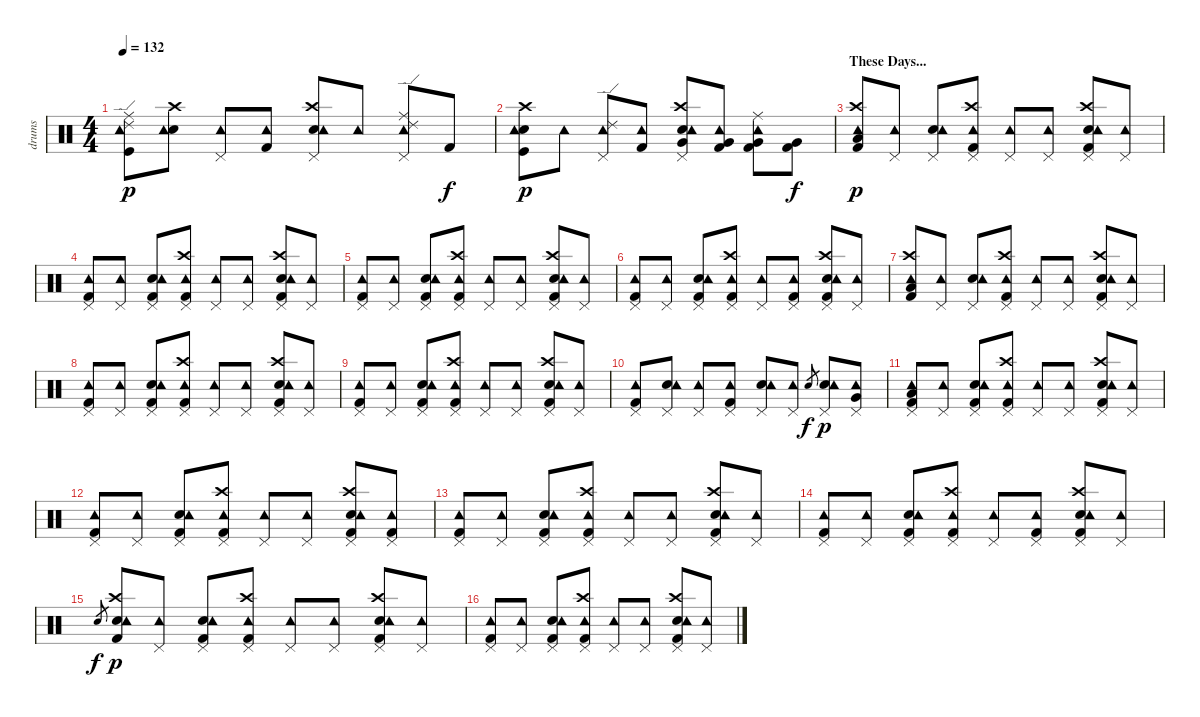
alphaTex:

\track ("drums" "drums") {instrument percussion}
\staff {score}
\articulation defaults
\ts (4 4)
\tempo 132
\clef neutral
\ks c
("Ride (edge) 2" "Kick (hit)" "Ride (middle)" "Tambourine (hit)").8{dy p} ("Electric Snare (hit)" "Crash high (hit)" "Tambourine (hit)").8 ("Pedal Hi-Hat (hit)" "Tambourine (hit)").8 ("Kick (hit) 2" "Tambourine (hit)").8 ("Electric Snare (hit)" "Pedal Hi-Hat (hit)" "Crash high (hit)" "Tambourine (hit)").8 "Tambourine (hit)".8 ("Ride (edge) 2" "Pedal Hi-Hat (hit)" "Ride (middle)" "Tambourine (hit)").8 "Kick (hit) 2".8{dy f} |
("Electric Snare (hit)" "Kick (hit)" "Crash high (hit)" "Tambourine (hit)").8{dy p} "Tambourine (hit)".8 ("Ride (edge) 2" "Pedal Hi-Hat (hit)" "Tambourine (hit)").8 ("Kick (hit) 2" "Tambourine (hit)").8 ("Electric Snare (hit)" "Very Low Tom (hit)" "Pedal Hi-Hat (hit)" "Crash high (hit)" "Tambourine (hit)").8 ("Very Low Tom (hit)" "Kick (hit) 2" "Tambourine (hit)").8 ("Very Low Tom (hit)" "Kick (hit) 2" "Ride (middle)" "Tambourine (hit)").8 ("Very Low Tom (hit)" "Kick (hit) 2").8{dy f} |
\section ("" "These Days...")
("Low Floor Tom (hit)" "Kick (hit) 2" "Crash high (hit)" "Tambourine (hit)").8{dy p} ("Pedal Hi-Hat (hit)" "Tambourine (hit)").8 ("Electric Snare (hit)" "Pedal Hi-Hat (hit)" "Tambourine (hit)").8 ("Crash high (hit)" "Kick (hit) 2" "Pedal Hi-Hat (hit)" "Tambourine (hit)").8 ("Pedal Hi-Hat (hit)" "Tambourine (hit)").8 ("Pedal Hi-Hat (hit)" "Tambourine (hit)").8 ("Electric Snare (hit)" "Crash high (hit)" "Kick (hit) 2" "Pedal Hi-Hat (hit)" "Tambourine (hit)").8 ("Pedal Hi-Hat (hit)" "Tambourine (hit)").8 |
("Kick (hit) 2" "Pedal Hi-Hat (hit)" "Tambourine (hit)").8 ("Pedal Hi-Hat (hit)" "Tambourine (hit)").8 ("Electric Snare (hit)" "Kick (hit) 2" "Pedal Hi-Hat (hit)" "Tambourine (hit)").8 ("Crash high (hit)" "Kick (hit) 2" "Pedal Hi-Hat (hit)" "Tambourine (hit)").8 ("Pedal Hi-Hat (hit)" "Tambourine (hit)").8 ("Pedal Hi-Hat (hit)" "Tambourine (hit)").8 ("Electric Snare (hit)" "Crash high (hit)" "Kick (hit) 2" "Pedal Hi-Hat (hit)" "Tambourine (hit)").8 ("Pedal Hi-Hat (hit)" "Tambourine (hit)").8 |
("Kick (hit) 2" "Pedal Hi-Hat (hit)" "Tambourine (hit)").8 ("Pedal Hi-Hat (hit)" "Tambourine (hit)").8 ("Electric Snare (hit)" "Kick (hit) 2" "Pedal Hi-Hat (hit)" "Tambourine (hit)").8 ("Crash high (hit)" "Kick (hit) 2" "Pedal Hi-Hat (hit)" "Tambourine (hit)").8 ("Pedal Hi-Hat (hit)" "Tambourine (hit)").8 ("Pedal Hi-Hat (hit)" "Tambourine (hit)").8 ("Electric Snare (hit)" "Crash high (hit)" "Kick (hit) 2" "Pedal Hi-Hat (hit)" "Tambourine (hit)").8 ("Pedal Hi-Hat (hit)" "Tambourine (hit)").8 |
("Kick (hit) 2" "Pedal Hi-Hat (hit)" "Tambourine (hit)").8 ("Pedal Hi-Hat (hit)" "Tambourine (hit)").8 ("Electric Snare (hit)" "Kick (hit) 2" "Pedal Hi-Hat (hit)" "Tambourine (hit)").8 ("Crash high (hit)" "Kick (hit) 2" "Pedal Hi-Hat (hit)" "Tambourine (hit)").8 ("Pedal Hi-Hat (hit)" "Tambourine (hit)").8 ("Kick (hit) 2" "Pedal Hi-Hat (hit)" "Tambourine (hit)").8 ("Electric Snare (hit)" "Crash high (hit)" "Kick (hit) 2" "Pedal Hi-Hat (hit)" "Tambourine (hit)").8 ("Pedal Hi-Hat (hit)" "Tambourine (hit)").8 |
("Low Floor Tom (hit)" "Kick (hit) 2" "Crash high (hit)" "Tambourine (hit)").8 ("Pedal Hi-Hat (hit)" "Tambourine (hit)").8 ("Electric Snare (hit)" "Pedal Hi-Hat (hit)" "Tambourine (hit)").8 ("Crash high (hit)" "Kick (hit) 2" "Pedal Hi-Hat (hit)" "Tambourine (hit)").8 ("Pedal Hi-Hat (hit)" "Tambourine (hit)").8 ("Pedal Hi-Hat (hit)" "Tambourine (hit)").8 ("Electric Snare (hit)" "Crash high (hit)" "Kick (hit) 2" "Pedal Hi-Hat (hit)" "Tambourine (hit)").8 ("Pedal Hi-Hat (hit)" "Tambourine (hit)").8 |
("Kick (hit) 2" "Pedal Hi-Hat (hit)" "Tambourine (hit)").8 ("Pedal Hi-Hat (hit)" "Tambourine (hit)").8 ("Electric Snare (hit)" "Kick (hit) 2" "Pedal Hi-Hat (hit)" "Tambourine (hit)").8 ("Crash high (hit)" "Kick (hit) 2" "Pedal Hi-Hat (hit)" "Tambourine (hit)").8 ("Pedal Hi-Hat (hit)" "Tambourine (hit)").8 ("Pedal Hi-Hat (hit)" "Tambourine (hit)").8 ("Electric Snare (hit)" "Crash high (hit)" "Kick (hit) 2" "Pedal Hi-Hat (hit)" "Tambourine (hit)").8 ("Pedal Hi-Hat (hit)" "Tambourine (hit)").8 |
("Kick (hit) 2" "Pedal Hi-Hat (hit)" "Tambourine (hit)").8 ("Pedal Hi-Hat (hit)" "Tambourine (hit)").8 ("Electric Snare (hit)" "Kick (hit) 2" "Pedal Hi-Hat (hit)" "Tambourine (hit)").8 ("Crash high (hit)" "Kick (hit) 2" "Pedal Hi-Hat (hit)" "Tambourine (hit)").8 ("Pedal Hi-Hat (hit)" "Tambourine (hit)").8 ("Pedal Hi-Hat (hit)" "Tambourine (hit)").8 ("Electric Snare (hit)" "Crash high (hit)" "Kick (hit) 2" "Pedal Hi-Hat (hit)" "Tambourine (hit)").8 ("Pedal Hi-Hat (hit)" "Tambourine (hit)").8 |
("Kick (hit) 2" "Pedal Hi-Hat (hit)" "Tambourine (hit)").8 ("Electric Snare (hit)" "Pedal Hi-Hat (hit)" "Tambourine (hit)").8 ("Pedal Hi-Hat (hit)" "Tambourine (hit)").8 ("Kick (hit) 2" "Pedal Hi-Hat (hit)" "Tambourine (hit)").8 ("Electric Snare (hit)" "Pedal Hi-Hat (hit)" "Tambourine (hit)").8 ("Pedal Hi-Hat (hit)" "Tambourine (hit)").8 "Electric Snare (hit)".8{gr dy f} ("Electric Snare (hit)" "Pedal Hi-Hat (hit)" "Tambourine (hit)").8{dy p} ("Very Low Tom (hit)" "Pedal Hi-Hat (hit)" "Tambourine (hit)").8 |
("Low Floor Tom (hit)" "Kick (hit) 2" "Pedal Hi-Hat (hit)" "Tambourine (hit)").8 ("Pedal Hi-Hat (hit)" "Tambourine (hit)").8 ("Electric Snare (hit)" "Kick (hit) 2" "Pedal Hi-Hat (hit)" "Tambourine (hit)").8 ("Crash high (hit)" "Kick (hit) 2" "Pedal Hi-Hat (hit)" "Tambourine (hit)").8 ("Pedal Hi-Hat (hit)" "Tambourine (hit)").8 ("Pedal Hi-Hat (hit)" "Tambourine (hit)").8 ("Electric Snare (hit)" "Crash high (hit)" "Kick (hit) 2" "Pedal Hi-Hat (hit)" "Tambourine (hit)").8 ("Pedal Hi-Hat (hit)" "Tambourine (hit)").8 |
("Kick (hit) 2" "Pedal Hi-Hat (hit)" "Tambourine (hit)").8 ("Pedal Hi-Hat (hit)" "Tambourine (hit)").8 ("Electric Snare (hit)" "Kick (hit) 2" "Pedal Hi-Hat (hit)" "Tambourine (hit)").8 ("Crash high (hit)" "Kick (hit) 2" "Pedal Hi-Hat (hit)" "Tambourine (hit)").8 ("Pedal Hi-Hat (hit)" "Tambourine (hit)").8 ("Pedal Hi-Hat (hit)" "Tambourine (hit)").8 ("Electric Snare (hit)" "Crash high (hit)" "Kick (hit) 2" "Pedal Hi-Hat (hit)" "Tambourine (hit)").8 ("Kick (hit) 2" "Pedal Hi-Hat (hit)" "Tambourine (hit)").8 |
("Kick (hit) 2" "Pedal Hi-Hat (hit)" "Tambourine (hit)").8 ("Pedal Hi-Hat (hit)" "Tambourine (hit)").8 ("Electric Snare (hit)" "Kick (hit) 2" "Pedal Hi-Hat (hit)" "Tambourine (hit)").8 ("Crash high (hit)" "Kick (hit) 2" "Pedal Hi-Hat (hit)" "Tambourine (hit)").8 ("Pedal Hi-Hat (hit)" "Tambourine (hit)").8 ("Pedal Hi-Hat (hit)" "Tambourine (hit)").8 ("Electric Snare (hit)" "Crash high (hit)" "Kick (hit) 2" "Pedal Hi-Hat (hit)" "Tambourine (hit)").8 ("Pedal Hi-Hat (hit)" "Tambourine (hit)").8 |
("Kick (hit) 2" "Pedal Hi-Hat (hit)" "Tambourine (hit)").8 ("Pedal Hi-Hat (hit)" "Tambourine (hit)").8 ("Electric Snare (hit)" "Kick (hit) 2" "Pedal Hi-Hat (hit)" "Tambourine (hit)").8 ("Crash high (hit)" "Kick (hit) 2" "Pedal Hi-Hat (hit)" "Tambourine (hit)").8 ("Pedal Hi-Hat (hit)" "Tambourine (hit)").8 ("Kick (hit) 2" "Pedal Hi-Hat (hit)" "Tambourine (hit)").8 ("Electric Snare (hit)" "Crash high (hit)" "Kick (hit) 2" "Pedal Hi-Hat (hit)" "Tambourine (hit)").8 ("Pedal Hi-Hat (hit)" "Tambourine (hit)").8 |
"Electric Snare (hit)".8{gr dy f} ("Electric Snare (hit)" "Kick (hit) 2" "Crash high (hit)" "Tambourine (hit)").8{dy p} ("Pedal Hi-Hat (hit)" "Tambourine (hit)").8 ("Electric Snare (hit)" "Kick (hit) 2" "Pedal Hi-Hat (hit)" "Tambourine (hit)").8 ("Crash high (hit)" "Kick (hit) 2" "Pedal Hi-Hat (hit)" "Tambourine (hit)").8 ("Pedal Hi-Hat (hit)" "Tambourine (hit)").8 ("Pedal Hi-Hat (hit)" "Tambourine (hit)").8 ("Electric Snare (hit)" "Crash high (hit)" "Kick (hit) 2" "Pedal Hi-Hat (hit)" "Tambourine (hit)").8 ("Pedal Hi-Hat (hit)" "Tambourine (hit)").8 |
("Kick (hit) 2" "Pedal Hi-Hat (hit)" "Tambourine (hit)").8 ("Pedal Hi-Hat (hit)" "Tambourine (hit)").8 ("Electric Snare (hit)" "Kick (hit) 2" "Pedal Hi-Hat (hit)" "Tambourine (hit)").8 ("Crash high (hit)" "Kick (hit) 2" "Pedal Hi-Hat (hit)" "Tambourine (hit)").8 ("Pedal Hi-Hat (hit)" "Tambourine (hit)").8 ("Pedal Hi-Hat (hit)" "Tambourine (hit)").8 ("Electric Snare (hit)" "Crash high (hit)" "Kick (hit) 2" "Pedal Hi-Hat (hit)" "Tambourine (hit)").8 ("Pedal Hi-Hat (hit)" "Tambourine (hit)").8
